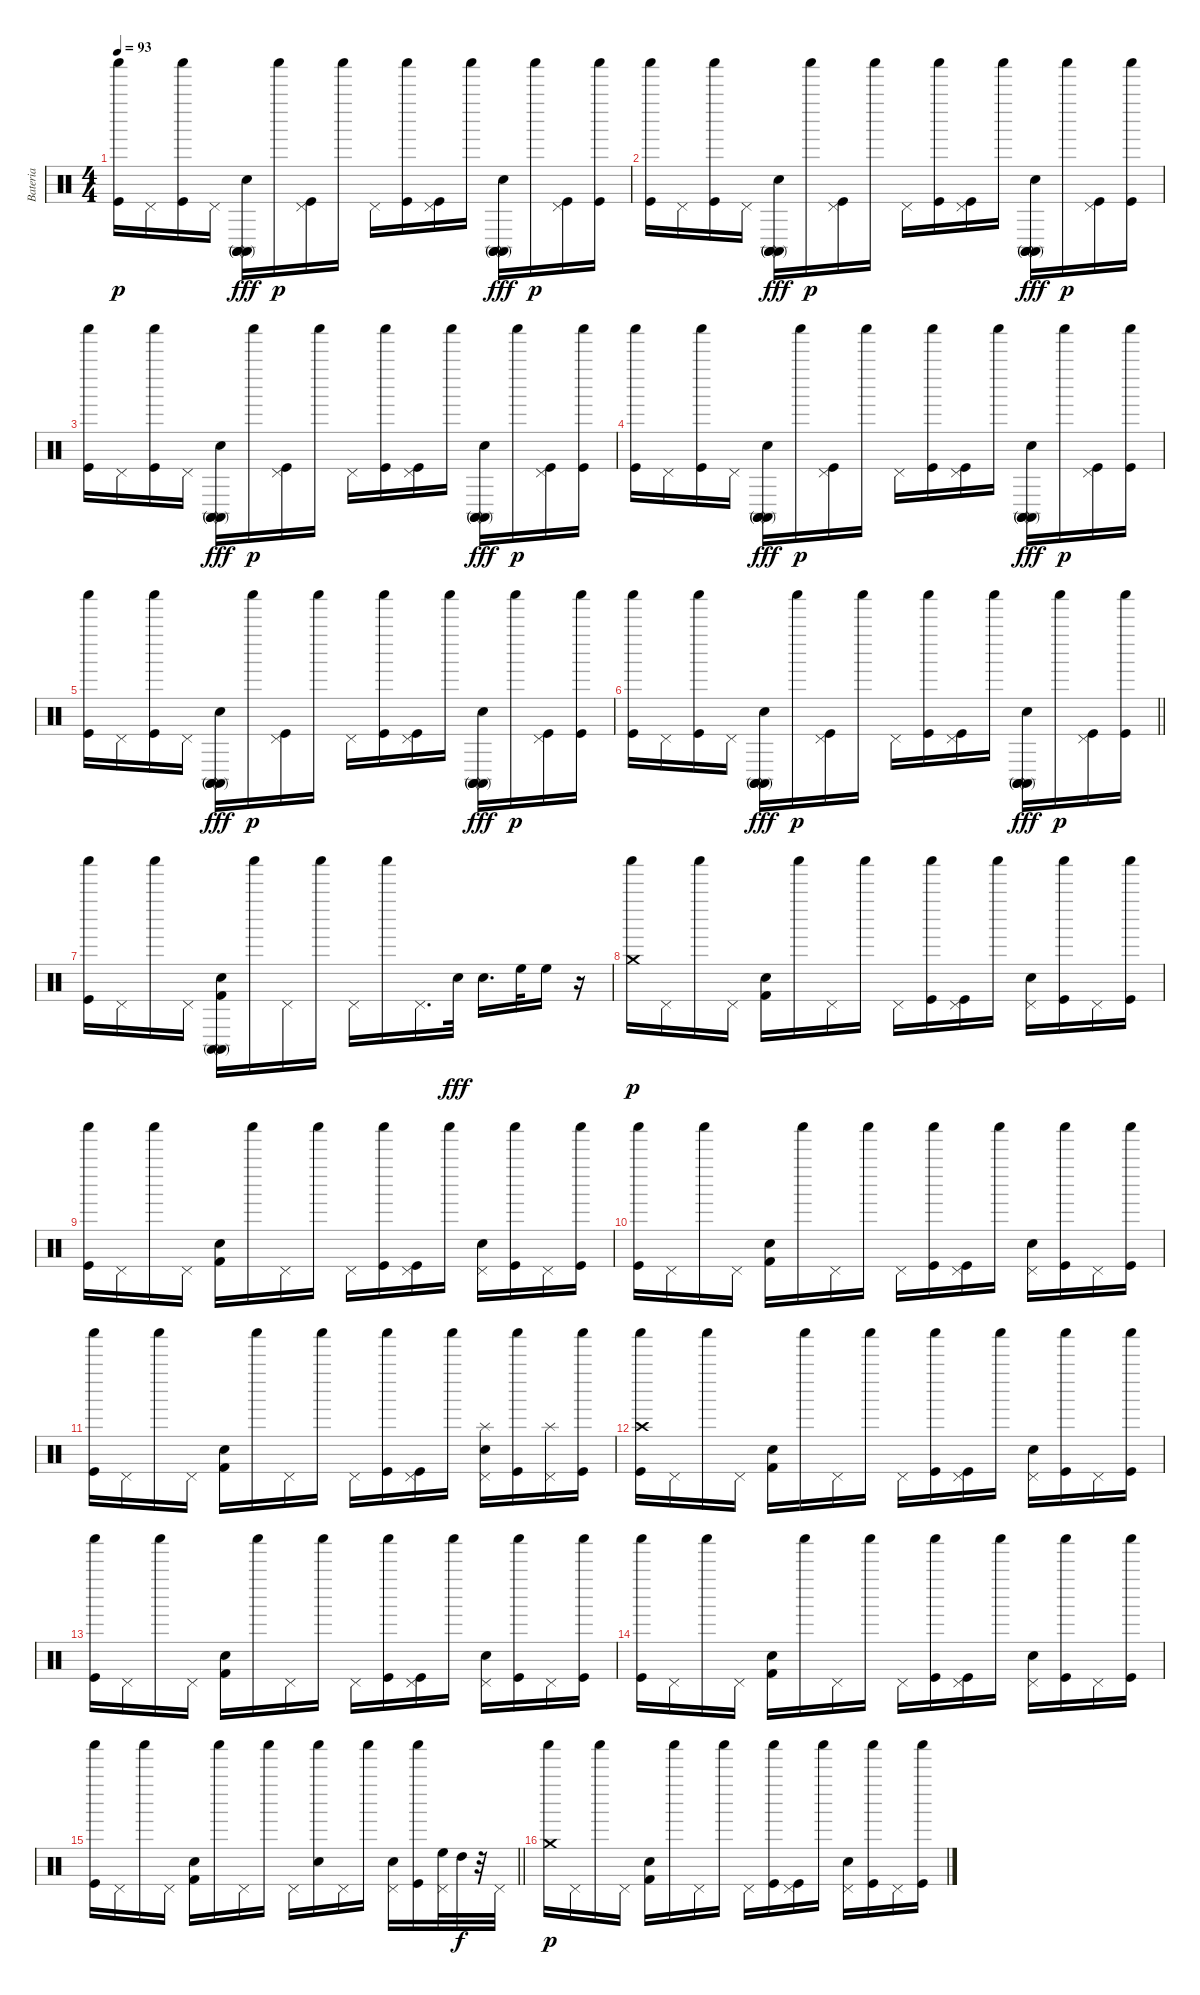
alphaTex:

\track ("Bateria" "Bateria") {instrument percussion}
\staff {score}
\articulation defaults
\ts (4 4)
\tempo 93
\clef neutral
\ks c
("Kick (hit)" "Shaker (hit)").16{dy p volume 13} "Pedal Hi-Hat (hit)".16 ("Kick (hit)" "Shaker (hit)").16 "Pedal Hi-Hat (hit)".16 ("Electric Snare (hit)" "Conga high (mute)" "Conga high (mute)" "Conga high (mute)").16{dy fff} "Shaker (hit)".16{dy p} ("Kick (hit)" "Pedal Hi-Hat (hit)").16 "Shaker (hit)".16 "Pedal Hi-Hat (hit)".16 ("Kick (hit)" "Shaker (hit)").16 ("Kick (hit)" "Pedal Hi-Hat (hit)").16 "Shaker (hit)".16 ("Electric Snare (hit)" "Conga high (mute)" "Conga high (mute)" "Conga high (mute)").16{dy fff} "Shaker (hit)".16{dy p} ("Kick (hit)" "Pedal Hi-Hat (hit)").16 ("Kick (hit)" "Shaker (hit)").16 |
("Kick (hit)" "Shaker (hit)").16{volume 13} "Pedal Hi-Hat (hit)".16 ("Kick (hit)" "Shaker (hit)").16 "Pedal Hi-Hat (hit)".16 ("Electric Snare (hit)" "Conga high (mute)" "Conga high (mute)" "Conga high (mute)").16{dy fff} "Shaker (hit)".16{dy p} ("Kick (hit)" "Pedal Hi-Hat (hit)").16 "Shaker (hit)".16 "Pedal Hi-Hat (hit)".16 ("Kick (hit)" "Shaker (hit)").16 ("Kick (hit)" "Pedal Hi-Hat (hit)").16 "Shaker (hit)".16 ("Electric Snare (hit)" "Conga high (mute)" "Conga high (mute)" "Conga high (mute)").16{dy fff} "Shaker (hit)".16{dy p} ("Kick (hit)" "Pedal Hi-Hat (hit)").16 ("Kick (hit)" "Shaker (hit)").16 |
("Kick (hit)" "Shaker (hit)").16{volume 13} "Pedal Hi-Hat (hit)".16 ("Kick (hit)" "Shaker (hit)").16 "Pedal Hi-Hat (hit)".16 ("Electric Snare (hit)" "Conga high (mute)" "Conga high (mute)" "Conga high (mute)").16{dy fff} "Shaker (hit)".16{dy p} ("Kick (hit)" "Pedal Hi-Hat (hit)").16 "Shaker (hit)".16 "Pedal Hi-Hat (hit)".16 ("Kick (hit)" "Shaker (hit)").16 ("Kick (hit)" "Pedal Hi-Hat (hit)").16 "Shaker (hit)".16 ("Electric Snare (hit)" "Conga high (mute)" "Conga high (mute)" "Conga high (mute)").16{dy fff} "Shaker (hit)".16{dy p} ("Kick (hit)" "Pedal Hi-Hat (hit)").16 ("Kick (hit)" "Shaker (hit)").16 |
("Kick (hit)" "Shaker (hit)").16{volume 13} "Pedal Hi-Hat (hit)".16 ("Kick (hit)" "Shaker (hit)").16 "Pedal Hi-Hat (hit)".16 ("Electric Snare (hit)" "Conga high (mute)" "Conga high (mute)" "Conga high (mute)").16{dy fff} "Shaker (hit)".16{dy p} ("Kick (hit)" "Pedal Hi-Hat (hit)").16 "Shaker (hit)".16 "Pedal Hi-Hat (hit)".16 ("Kick (hit)" "Shaker (hit)").16 ("Kick (hit)" "Pedal Hi-Hat (hit)").16 "Shaker (hit)".16 ("Electric Snare (hit)" "Conga high (mute)" "Conga high (mute)" "Conga high (mute)").16{dy fff} "Shaker (hit)".16{dy p} ("Kick (hit)" "Pedal Hi-Hat (hit)").16 ("Kick (hit)" "Shaker (hit)").16 |
("Kick (hit)" "Shaker (hit)").16{volume 13} "Pedal Hi-Hat (hit)".16 ("Kick (hit)" "Shaker (hit)").16 "Pedal Hi-Hat (hit)".16 ("Electric Snare (hit)" "Conga high (mute)" "Conga high (mute)" "Conga high (mute)").16{dy fff} "Shaker (hit)".16{dy p} ("Kick (hit)" "Pedal Hi-Hat (hit)").16 "Shaker (hit)".16 "Pedal Hi-Hat (hit)".16 ("Kick (hit)" "Shaker (hit)").16 ("Kick (hit)" "Pedal Hi-Hat (hit)").16 "Shaker (hit)".16 ("Electric Snare (hit)" "Conga high (mute)" "Conga high (mute)" "Conga high (mute)").16{dy fff} "Shaker (hit)".16{dy p} ("Kick (hit)" "Pedal Hi-Hat (hit)").16 ("Kick (hit)" "Shaker (hit)").16 |
\barLineRight lightlight
("Kick (hit)" "Shaker (hit)").16{volume 13} "Pedal Hi-Hat (hit)".16 ("Kick (hit)" "Shaker (hit)").16 "Pedal Hi-Hat (hit)".16 ("Electric Snare (hit)" "Conga high (mute)" "Conga high (mute)" "Conga high (mute)").16{dy fff} "Shaker (hit)".16{dy p} ("Kick (hit)" "Pedal Hi-Hat (hit)").16 "Shaker (hit)".16 "Pedal Hi-Hat (hit)".16 ("Kick (hit)" "Shaker (hit)").16 ("Kick (hit)" "Pedal Hi-Hat (hit)").16 "Shaker (hit)".16 ("Electric Snare (hit)" "Conga high (mute)" "Conga high (mute)" "Conga high (mute)").16{dy fff} "Shaker (hit)".16{dy p} ("Kick (hit)" "Pedal Hi-Hat (hit)").16 ("Kick (hit)" "Shaker (hit)").16 |
("Kick (hit)" "Shaker (hit)").16 "Pedal Hi-Hat (hit)".16 "Shaker (hit)".16 "Pedal Hi-Hat (hit)".16 ("Electric Snare (hit)" "Kick (hit) 2" "Conga high (mute)" "Conga high (mute)").16 "Shaker (hit)".16 "Pedal Hi-Hat (hit)".16 "Shaker (hit)".16 "Pedal Hi-Hat (hit)".16 "Shaker (hit)".16 "Pedal Hi-Hat (hit)".16{d} "Electric Snare (hit)".32{dy fff volume 16} "Electric Snare (hit)".16{d} "High Floor Tom (hit)".32 "High Floor Tom (hit)".16 r.16 |
("Crash medium (hit)" "Shaker (hit)").16{dy p} "Pedal Hi-Hat (hit)".16 "Shaker (hit)".16 "Pedal Hi-Hat (hit)".16 ("Electric Snare (hit)" "Kick (hit) 2").16 "Shaker (hit)".16 "Pedal Hi-Hat (hit)".16 "Shaker (hit)".16 "Pedal Hi-Hat (hit)".16 ("Kick (hit)" "Shaker (hit)").16 ("Kick (hit)" "Pedal Hi-Hat (hit)").16 "Shaker (hit)".16 ("Electric Snare (hit)" "Pedal Hi-Hat (hit)").16 ("Kick (hit)" "Shaker (hit)").16 "Pedal Hi-Hat (hit)".16 ("Kick (hit)" "Shaker (hit)").16 |
("Kick (hit)" "Shaker (hit)").16 "Pedal Hi-Hat (hit)".16 "Shaker (hit)".16 "Pedal Hi-Hat (hit)".16 ("Electric Snare (hit)" "Kick (hit) 2").16 "Shaker (hit)".16 "Pedal Hi-Hat (hit)".16 "Shaker (hit)".16 "Pedal Hi-Hat (hit)".16 ("Kick (hit)" "Shaker (hit)").16 ("Kick (hit)" "Pedal Hi-Hat (hit)").16 "Shaker (hit)".16 ("Electric Snare (hit)" "Pedal Hi-Hat (hit)").16 ("Kick (hit)" "Shaker (hit)").16 "Pedal Hi-Hat (hit)".16 ("Kick (hit)" "Shaker (hit)").16 |
("Kick (hit)" "Shaker (hit)").16 "Pedal Hi-Hat (hit)".16 "Shaker (hit)".16 "Pedal Hi-Hat (hit)".16 ("Electric Snare (hit)" "Kick (hit) 2").16 "Shaker (hit)".16 "Pedal Hi-Hat (hit)".16 "Shaker (hit)".16 "Pedal Hi-Hat (hit)".16 ("Kick (hit)" "Shaker (hit)").16 ("Kick (hit)" "Pedal Hi-Hat (hit)").16 "Shaker (hit)".16 ("Electric Snare (hit)" "Pedal Hi-Hat (hit)").16 ("Kick (hit)" "Shaker (hit)").16 "Pedal Hi-Hat (hit)".16 ("Kick (hit)" "Shaker (hit)").16 |
("Kick (hit)" "Shaker (hit)").16 "Pedal Hi-Hat (hit)".16 "Shaker (hit)".16 "Pedal Hi-Hat (hit)".16 ("Electric Snare (hit)" "Kick (hit) 2").16 "Shaker (hit)".16 "Pedal Hi-Hat (hit)".16 "Shaker (hit)".16 "Pedal Hi-Hat (hit)".16 ("Kick (hit)" "Shaker (hit)").16 ("Kick (hit)" "Pedal Hi-Hat (hit)").16 "Shaker (hit)".16 ("Electric Snare (hit)" "Pedal Hi-Hat (hit)" "Splash (hit)").16 ("Kick (hit)" "Shaker (hit)").16 ("Pedal Hi-Hat (hit)" "Splash (hit)").16 ("Kick (hit)" "Shaker (hit)").16 |
("Kick (hit)" "Shaker (hit)" "Crash high (hit)").16 "Pedal Hi-Hat (hit)".16 "Shaker (hit)".16 "Pedal Hi-Hat (hit)".16 ("Electric Snare (hit)" "Kick (hit) 2").16 "Shaker (hit)".16 "Pedal Hi-Hat (hit)".16 "Shaker (hit)".16 "Pedal Hi-Hat (hit)".16 ("Kick (hit)" "Shaker (hit)").16 ("Kick (hit)" "Pedal Hi-Hat (hit)").16 "Shaker (hit)".16 ("Electric Snare (hit)" "Pedal Hi-Hat (hit)").16 ("Kick (hit)" "Shaker (hit)").16 "Pedal Hi-Hat (hit)".16 ("Kick (hit)" "Shaker (hit)").16 |
("Kick (hit)" "Shaker (hit)").16 "Pedal Hi-Hat (hit)".16 "Shaker (hit)".16 "Pedal Hi-Hat (hit)".16 ("Electric Snare (hit)" "Kick (hit) 2").16 "Shaker (hit)".16 "Pedal Hi-Hat (hit)".16 "Shaker (hit)".16 "Pedal Hi-Hat (hit)".16 ("Kick (hit)" "Shaker (hit)").16 ("Kick (hit)" "Pedal Hi-Hat (hit)").16 "Shaker (hit)".16 ("Electric Snare (hit)" "Pedal Hi-Hat (hit)").16 ("Kick (hit)" "Shaker (hit)").16 "Pedal Hi-Hat (hit)".16 ("Kick (hit)" "Shaker (hit)").16 |
("Kick (hit)" "Shaker (hit)").16 "Pedal Hi-Hat (hit)".16 "Shaker (hit)".16 "Pedal Hi-Hat (hit)".16 ("Electric Snare (hit)" "Kick (hit) 2").16 "Shaker (hit)".16 "Pedal Hi-Hat (hit)".16 "Shaker (hit)".16 "Pedal Hi-Hat (hit)".16 ("Kick (hit)" "Shaker (hit)").16 ("Kick (hit)" "Pedal Hi-Hat (hit)").16 "Shaker (hit)".16 ("Electric Snare (hit)" "Pedal Hi-Hat (hit)").16 ("Kick (hit)" "Shaker (hit)").16 "Pedal Hi-Hat (hit)".16 ("Kick (hit)" "Shaker (hit)").16 |
\barLineRight lightlight
("Kick (hit)" "Shaker (hit)").16 "Pedal Hi-Hat (hit)".16 "Shaker (hit)".16 "Pedal Hi-Hat (hit)".16 ("Electric Snare (hit)" "Kick (hit) 2").16 "Shaker (hit)".16 "Pedal Hi-Hat (hit)".16 "Shaker (hit)".16 "Pedal Hi-Hat (hit)".16 ("Electric Snare (hit)" "Shaker (hit)").16 "Pedal Hi-Hat (hit)".16 "Shaker (hit)".16 ("Electric Snare (hit)" "Pedal Hi-Hat (hit)").16 ("Kick (hit)" "Shaker (hit)").16 ("High Floor Tom (hit)" "Pedal Hi-Hat (hit)").32 "High Tom (hit)".32{dy f} r.32 "Pedal Hi-Hat (hit)".32 |
("Crash medium (hit)" "Shaker (hit)").16{dy p} "Pedal Hi-Hat (hit)".16 "Shaker (hit)".16 "Pedal Hi-Hat (hit)".16 ("Electric Snare (hit)" "Kick (hit) 2").16 "Shaker (hit)".16 "Pedal Hi-Hat (hit)".16 "Shaker (hit)".16 "Pedal Hi-Hat (hit)".16 ("Kick (hit)" "Shaker (hit)").16 ("Kick (hit)" "Pedal Hi-Hat (hit)").16 "Shaker (hit)".16 ("Electric Snare (hit)" "Pedal Hi-Hat (hit)").16 ("Kick (hit)" "Shaker (hit)").16 "Pedal Hi-Hat (hit)".16 ("Kick (hit)" "Shaker (hit)").16
